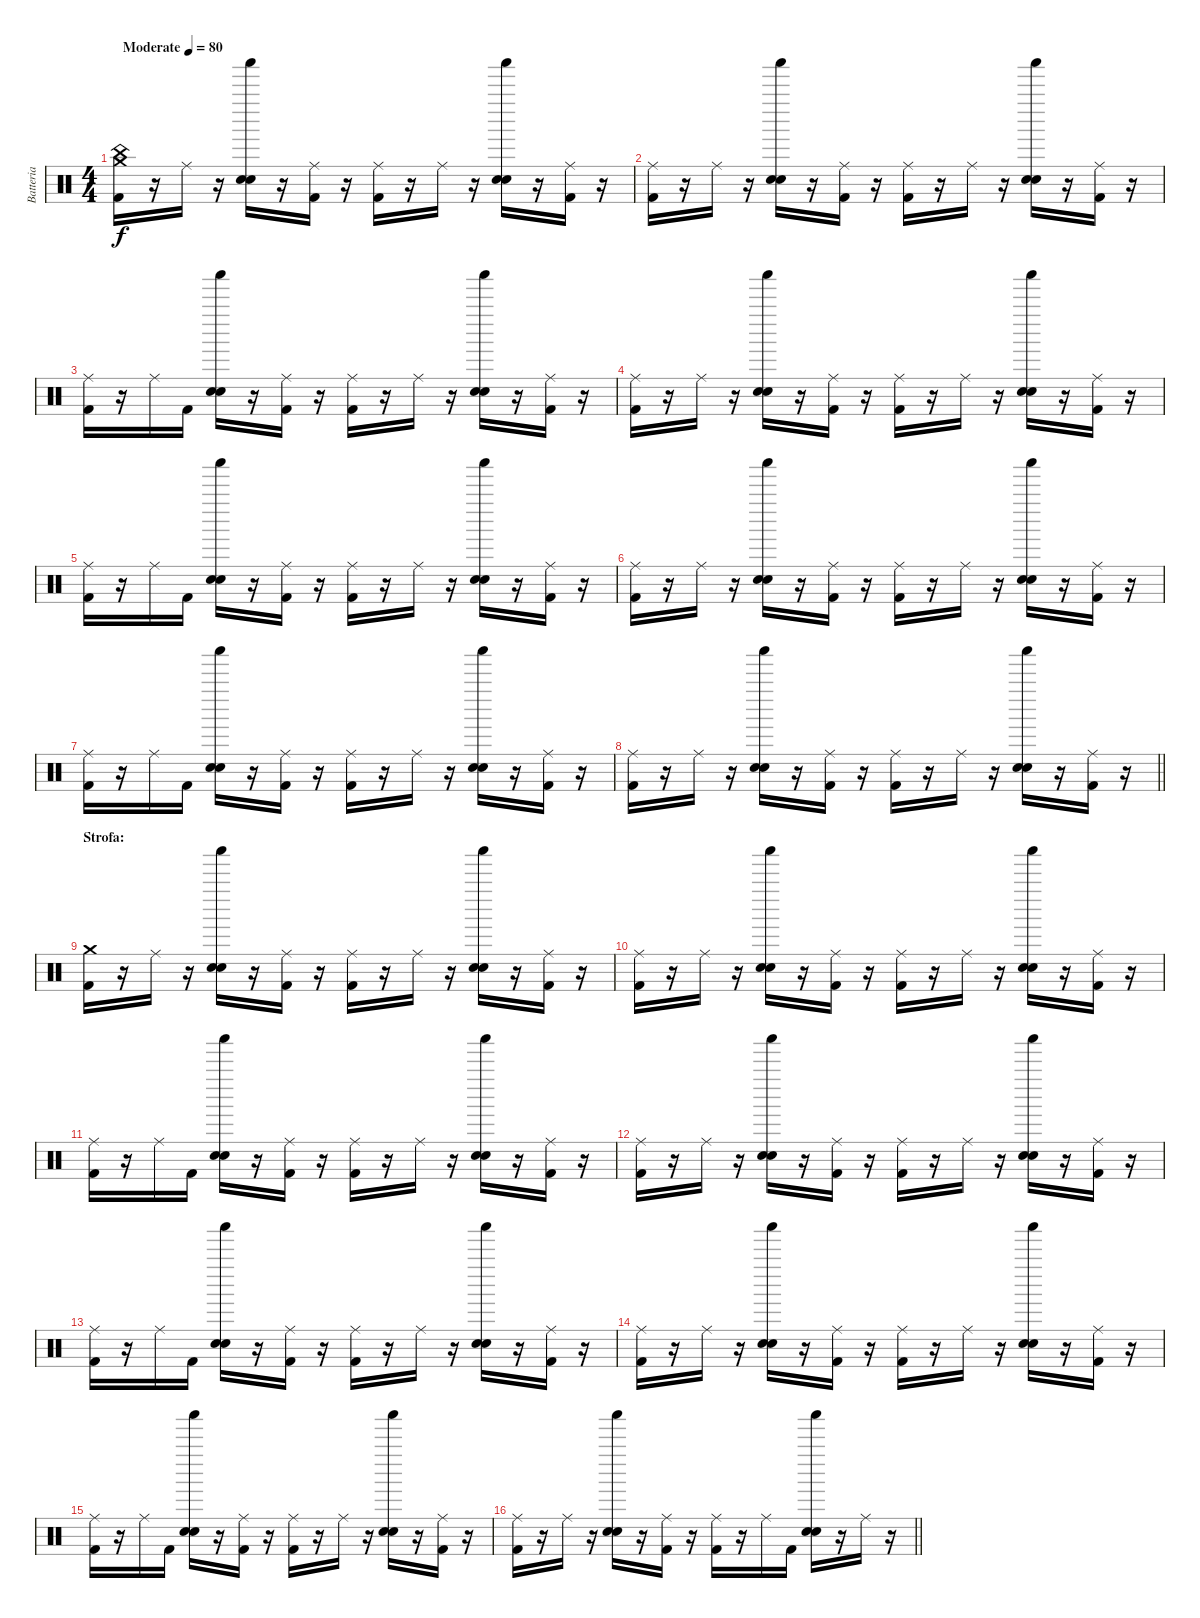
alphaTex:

\track ("Batteria" "Batteria") {instrument percussion}
\staff {score}
\articulation defaults
\ts (4 4)
\tempo (80 "Moderate")
\clef neutral
\ks c
("Kick (hit) 2" "China (hit)" "Crash medium (hit)").16{dy f} r.16 "Ride (middle)".16 r.16 ("Snare (hit) 2" "Hand Clap (hit)" "Shaker (hit)").16 r.16 ("Kick (hit) 2" "Ride (middle)").16 r.16 ("Kick (hit) 2" "Ride (middle)").16 r.16 "Ride (middle)".16 r.16 ("Snare (hit) 2" "Hand Clap (hit)" "Shaker (hit)").16 r.16 ("Kick (hit) 2" "Ride (middle)").16 r.16 |
("Kick (hit) 2" "Ride (middle)").16 r.16 "Ride (middle)".16 r.16 ("Snare (hit) 2" "Hand Clap (hit)" "Shaker (hit)").16 r.16 ("Kick (hit) 2" "Ride (middle)").16 r.16 ("Kick (hit) 2" "Ride (middle)").16 r.16 "Ride (middle)".16 r.16 ("Snare (hit) 2" "Hand Clap (hit)" "Shaker (hit)").16 r.16 ("Kick (hit) 2" "Ride (middle)").16 r.16 |
("Kick (hit) 2" "Ride (middle)").16 r.16 "Ride (middle)".16 "Kick (hit) 2".16 ("Snare (hit) 2" "Hand Clap (hit)" "Shaker (hit)").16 r.16 ("Kick (hit) 2" "Ride (middle)").16 r.16 ("Kick (hit) 2" "Ride (middle)").16 r.16 "Ride (middle)".16 r.16 ("Snare (hit) 2" "Hand Clap (hit)" "Shaker (hit)").16 r.16 ("Kick (hit) 2" "Ride (middle)").16 r.16 |
("Kick (hit) 2" "Ride (middle)").16 r.16 "Ride (middle)".16 r.16 ("Snare (hit) 2" "Hand Clap (hit)" "Shaker (hit)").16 r.16 ("Kick (hit) 2" "Ride (middle)").16 r.16 ("Kick (hit) 2" "Ride (middle)").16 r.16 "Ride (middle)".16 r.16 ("Snare (hit) 2" "Hand Clap (hit)" "Shaker (hit)").16 r.16 ("Kick (hit) 2" "Ride (middle)").16 r.16 |
("Kick (hit) 2" "Ride (middle)").16 r.16 "Ride (middle)".16 "Kick (hit) 2".16 ("Snare (hit) 2" "Hand Clap (hit)" "Shaker (hit)").16 r.16 ("Kick (hit) 2" "Ride (middle)").16 r.16 ("Kick (hit) 2" "Ride (middle)").16 r.16 "Ride (middle)".16 r.16 ("Snare (hit) 2" "Hand Clap (hit)" "Shaker (hit)").16 r.16 ("Kick (hit) 2" "Ride (middle)").16 r.16 |
("Kick (hit) 2" "Ride (middle)").16 r.16 "Ride (middle)".16 r.16 ("Snare (hit) 2" "Hand Clap (hit)" "Shaker (hit)").16 r.16 ("Kick (hit) 2" "Ride (middle)").16 r.16 ("Kick (hit) 2" "Ride (middle)").16 r.16 "Ride (middle)".16 r.16 ("Snare (hit) 2" "Hand Clap (hit)" "Shaker (hit)").16 r.16 ("Kick (hit) 2" "Ride (middle)").16 r.16 |
("Kick (hit) 2" "Ride (middle)").16 r.16 "Ride (middle)".16 "Kick (hit) 2".16 ("Snare (hit) 2" "Hand Clap (hit)" "Shaker (hit)").16 r.16 ("Kick (hit) 2" "Ride (middle)").16 r.16 ("Kick (hit) 2" "Ride (middle)").16 r.16 "Ride (middle)".16 r.16 ("Snare (hit) 2" "Hand Clap (hit)" "Shaker (hit)").16 r.16 ("Kick (hit) 2" "Ride (middle)").16 r.16 |
\barLineRight lightlight
("Kick (hit) 2" "Ride (middle)").16 r.16 "Ride (middle)".16 r.16 ("Snare (hit) 2" "Hand Clap (hit)" "Shaker (hit)").16 r.16 ("Kick (hit) 2" "Ride (middle)").16 r.16 ("Kick (hit) 2" "Ride (middle)").16 r.16 "Ride (middle)".16 r.16 ("Snare (hit) 2" "Hand Clap (hit)" "Shaker (hit)").16 r.16 ("Kick (hit) 2" "Ride (middle)").16 r.16 |
\section ("" "Strofa:")
("Kick (hit) 2" "Crash medium (hit)").16 r.16 "Ride (middle)".16 r.16 ("Snare (hit) 2" "Snare (hit) 2" "Shaker (hit)").16 r.16 ("Kick (hit) 2" "Ride (middle)").16 r.16 ("Kick (hit) 2" "Ride (middle)").16 r.16 "Ride (middle)".16 r.16 ("Snare (hit) 2" "Snare (hit) 2" "Shaker (hit)").16 r.16 ("Kick (hit) 2" "Ride (middle)").16 r.16 |
("Kick (hit) 2" "Ride (middle)").16 r.16 "Ride (middle)".16 r.16 ("Snare (hit) 2" "Snare (hit) 2" "Shaker (hit)").16 r.16 ("Kick (hit) 2" "Ride (middle)").16 r.16 ("Kick (hit) 2" "Ride (middle)").16 r.16 "Ride (middle)".16 r.16 ("Snare (hit) 2" "Snare (hit) 2" "Shaker (hit)").16 r.16 ("Kick (hit) 2" "Ride (middle)").16 r.16 |
("Kick (hit) 2" "Ride (middle)").16 r.16 "Ride (middle)".16 "Kick (hit) 2".16 ("Snare (hit) 2" "Snare (hit) 2" "Shaker (hit)").16 r.16 ("Kick (hit) 2" "Ride (middle)").16 r.16 ("Kick (hit) 2" "Ride (middle)").16 r.16 "Ride (middle)".16 r.16 ("Snare (hit) 2" "Snare (hit) 2" "Shaker (hit)").16 r.16 ("Kick (hit) 2" "Ride (middle)").16 r.16 |
("Kick (hit) 2" "Ride (middle)").16 r.16 "Ride (middle)".16 r.16 ("Snare (hit) 2" "Snare (hit) 2" "Shaker (hit)").16 r.16 ("Kick (hit) 2" "Ride (middle)").16 r.16 ("Kick (hit) 2" "Ride (middle)").16 r.16 "Ride (middle)".16 r.16 ("Snare (hit) 2" "Snare (hit) 2" "Shaker (hit)").16 r.16 ("Kick (hit) 2" "Ride (middle)").16 r.16 |
("Kick (hit) 2" "Ride (middle)").16 r.16 "Ride (middle)".16 "Kick (hit) 2".16 ("Snare (hit) 2" "Snare (hit) 2" "Shaker (hit)").16 r.16 ("Kick (hit) 2" "Ride (middle)").16 r.16 ("Kick (hit) 2" "Ride (middle)").16 r.16 "Ride (middle)".16 r.16 ("Snare (hit) 2" "Snare (hit) 2" "Shaker (hit)").16 r.16 ("Kick (hit) 2" "Ride (middle)").16 r.16 |
("Kick (hit) 2" "Ride (middle)").16 r.16 "Ride (middle)".16 r.16 ("Snare (hit) 2" "Snare (hit) 2" "Shaker (hit)").16 r.16 ("Kick (hit) 2" "Ride (middle)").16 r.16 ("Kick (hit) 2" "Ride (middle)").16 r.16 "Ride (middle)".16 r.16 ("Snare (hit) 2" "Snare (hit) 2" "Shaker (hit)").16 r.16 ("Kick (hit) 2" "Ride (middle)").16 r.16 |
("Kick (hit) 2" "Ride (middle)").16 r.16 "Ride (middle)".16 "Kick (hit) 2".16 ("Snare (hit) 2" "Snare (hit) 2" "Shaker (hit)").16 r.16 ("Kick (hit) 2" "Ride (middle)").16 r.16 ("Kick (hit) 2" "Ride (middle)").16 r.16 "Ride (middle)".16 r.16 ("Snare (hit) 2" "Snare (hit) 2" "Shaker (hit)").16 r.16 ("Kick (hit) 2" "Ride (middle)").16 r.16 |
\barLineRight lightlight
("Kick (hit) 2" "Ride (middle)").16 r.16 "Ride (middle)".16 r.16 ("Snare (hit) 2" "Snare (hit) 2" "Shaker (hit)").16 r.16 ("Kick (hit) 2" "Ride (middle)").16 r.16 ("Kick (hit) 2" "Ride (middle)").16 r.16 "Ride (middle)".16 "Kick (hit) 2".16 ("Snare (hit) 2" "Snare (hit) 2" "Shaker (hit)").16 r.16 "Ride (middle)".16 r.16
